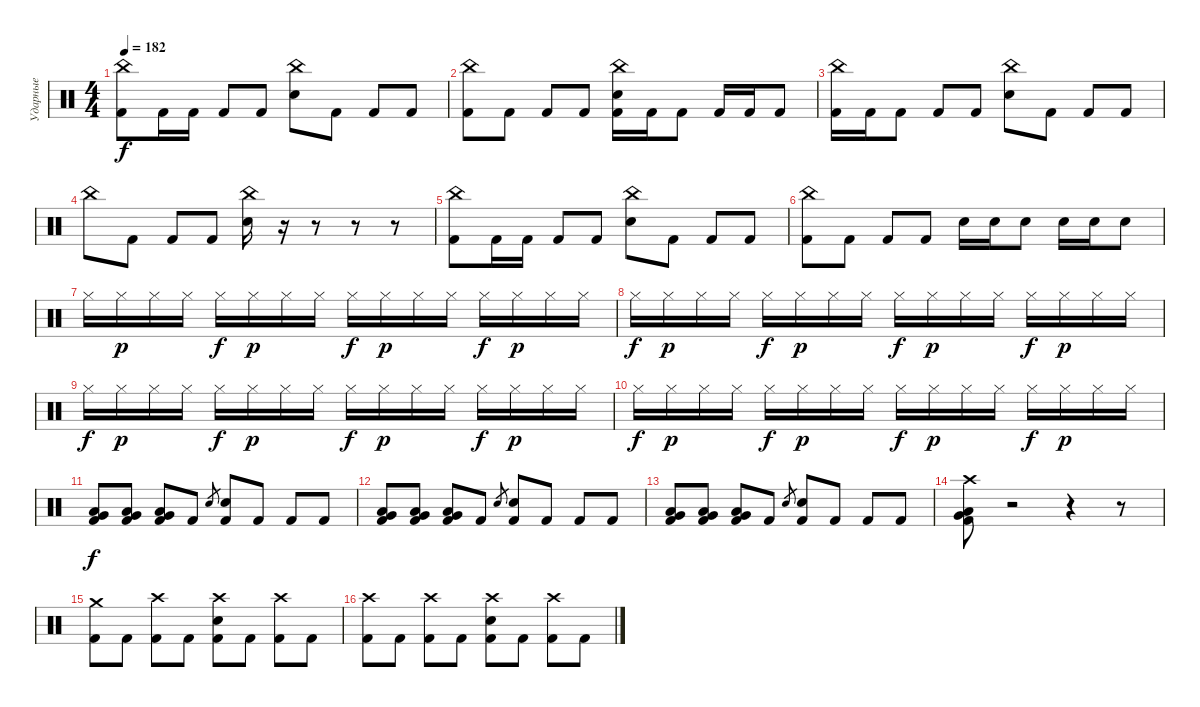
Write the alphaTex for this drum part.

\track ("Ударные" "Ударные") {instrument percussion}
\staff {score}
\articulation defaults
\ts (4 4)
\tempo 182
\clef neutral
\ks c
("China (hit)" "Kick (hit) 2").8{dy f} "Kick (hit) 2".16 "Kick (hit) 2".16 "Kick (hit) 2".8 "Kick (hit) 2".8 ("China (hit)" "Electric Snare (hit)").8 "Kick (hit) 2".8 "Kick (hit) 2".8 "Kick (hit) 2".8 |
("China (hit)" "Kick (hit) 2").8 "Kick (hit) 2".8 "Kick (hit) 2".8 "Kick (hit) 2".8 ("China (hit)" "Electric Snare (hit)" "Kick (hit) 2").16 "Kick (hit) 2".16 "Kick (hit) 2".8 "Kick (hit) 2".16 "Kick (hit) 2".16 "Kick (hit) 2".8 |
("China (hit)" "Kick (hit) 2").16 "Kick (hit) 2".16 "Kick (hit) 2".8 "Kick (hit) 2".8 "Kick (hit) 2".8 ("China (hit)" "Electric Snare (hit)").8 "Kick (hit) 2".8 "Kick (hit) 2".8 "Kick (hit) 2".8 |
"China (hit)".8 "Kick (hit) 2".8 "Kick (hit) 2".8 "Kick (hit) 2".8 ("China (hit)" "Electric Snare (hit)").16 r.16 r.8 r.8 r.8 |
("China (hit)" "Kick (hit) 2").8 "Kick (hit) 2".16 "Kick (hit) 2".16 "Kick (hit) 2".8 "Kick (hit) 2".8 ("China (hit)" "Electric Snare (hit)").8 "Kick (hit) 2".8 "Kick (hit) 2".8 "Kick (hit) 2".8 |
("China (hit)" "Kick (hit) 2").8 "Kick (hit) 2".8 "Kick (hit) 2".8 "Kick (hit) 2".8 "Electric Snare (hit)".16 "Electric Snare (hit)".16 "Electric Snare (hit)".8 "Electric Snare (hit)".16 "Electric Snare (hit)".16 "Electric Snare (hit)".8 |
"Hi-Hat (closed)".16 "Hi-Hat (closed)".16{dy p} "Hi-Hat (closed)".16 "Hi-Hat (closed)".16 "Hi-Hat (closed)".16{dy f} "Hi-Hat (closed)".16{dy p} "Hi-Hat (closed)".16 "Hi-Hat (closed)".16 "Hi-Hat (closed)".16{dy f} "Hi-Hat (closed)".16{dy p} "Hi-Hat (closed)".16 "Hi-Hat (closed)".16 "Hi-Hat (closed)".16{dy f} "Hi-Hat (closed)".16{dy p} "Hi-Hat (closed)".16 "Hi-Hat (closed)".16 |
"Hi-Hat (closed)".16{dy f} "Hi-Hat (closed)".16{dy p} "Hi-Hat (closed)".16 "Hi-Hat (closed)".16 "Hi-Hat (closed)".16{dy f} "Hi-Hat (closed)".16{dy p} "Hi-Hat (closed)".16 "Hi-Hat (closed)".16 "Hi-Hat (closed)".16{dy f} "Hi-Hat (closed)".16{dy p} "Hi-Hat (closed)".16 "Hi-Hat (closed)".16 "Hi-Hat (closed)".16{dy f} "Hi-Hat (closed)".16{dy p} "Hi-Hat (closed)".16 "Hi-Hat (closed)".16 |
"Hi-Hat (closed)".16{dy f} "Hi-Hat (closed)".16{dy p} "Hi-Hat (closed)".16 "Hi-Hat (closed)".16 "Hi-Hat (closed)".16{dy f} "Hi-Hat (closed)".16{dy p} "Hi-Hat (closed)".16 "Hi-Hat (closed)".16 "Hi-Hat (closed)".16{dy f} "Hi-Hat (closed)".16{dy p} "Hi-Hat (closed)".16 "Hi-Hat (closed)".16 "Hi-Hat (closed)".16{dy f} "Hi-Hat (closed)".16{dy p} "Hi-Hat (closed)".16 "Hi-Hat (closed)".16 |
"Hi-Hat (closed)".16{dy f} "Hi-Hat (closed)".16{dy p} "Hi-Hat (closed)".16 "Hi-Hat (closed)".16 "Hi-Hat (closed)".16{dy f} "Hi-Hat (closed)".16{dy p} "Hi-Hat (closed)".16 "Hi-Hat (closed)".16 "Hi-Hat (closed)".16{dy f} "Hi-Hat (closed)".16{dy p} "Hi-Hat (closed)".16 "Hi-Hat (closed)".16 "Hi-Hat (closed)".16{dy f} "Hi-Hat (closed)".16{dy p} "Hi-Hat (closed)".16 "Hi-Hat (closed)".16 |
("Very Low Tom (hit)" "Low Floor Tom (hit)" "Kick (hit) 2").8{dy f} ("Very Low Tom (hit)" "Low Floor Tom (hit)" "Kick (hit) 2").8 ("Very Low Tom (hit)" "Low Floor Tom (hit)" "Kick (hit) 2").8 "Kick (hit) 2".8 "Electric Snare (hit)".8{gr} ("Electric Snare (hit)" "Kick (hit) 2").8 "Kick (hit) 2".8 "Kick (hit) 2".8 "Kick (hit) 2".8 |
("Very Low Tom (hit)" "Low Floor Tom (hit)" "Kick (hit) 2").8 ("Very Low Tom (hit)" "Low Floor Tom (hit)" "Kick (hit) 2").8 ("Very Low Tom (hit)" "Low Floor Tom (hit)" "Kick (hit) 2").8 "Kick (hit) 2".8 "Electric Snare (hit)".8{gr} ("Electric Snare (hit)" "Kick (hit) 2").8 "Kick (hit) 2".8 "Kick (hit) 2".8 "Kick (hit) 2".8 |
("Very Low Tom (hit)" "Low Floor Tom (hit)" "Kick (hit) 2").8 ("Very Low Tom (hit)" "Low Floor Tom (hit)" "Kick (hit) 2").8 ("Very Low Tom (hit)" "Low Floor Tom (hit)" "Kick (hit) 2").8 "Kick (hit) 2".8 "Electric Snare (hit)".8{gr} ("Electric Snare (hit)" "Kick (hit) 2").8 "Kick (hit) 2".8 "Kick (hit) 2".8 "Kick (hit) 2".8 |
("Crash high (hit)" "Very Low Tom (hit)" "Low Floor Tom (hit)" "Kick (hit) 2").8 r.2 r.4 r.8 |
("Crash medium (hit)" "Kick (hit) 2").8 "Kick (hit) 2".8 ("Crash high (hit)" "Kick (hit) 2").8 "Kick (hit) 2".8 ("Crash high (hit)" "Electric Snare (hit)" "Kick (hit) 2").8 "Kick (hit) 2".8 ("Crash high (hit)" "Kick (hit) 2").8 "Kick (hit) 2".8 |
("Crash high (hit)" "Kick (hit) 2").8 "Kick (hit) 2".8 ("Crash high (hit)" "Kick (hit) 2").8 "Kick (hit) 2".8 ("Crash high (hit)" "Electric Snare (hit)" "Kick (hit) 2").8 "Kick (hit) 2".8 ("Crash high (hit)" "Kick (hit) 2").8 "Kick (hit) 2".8
